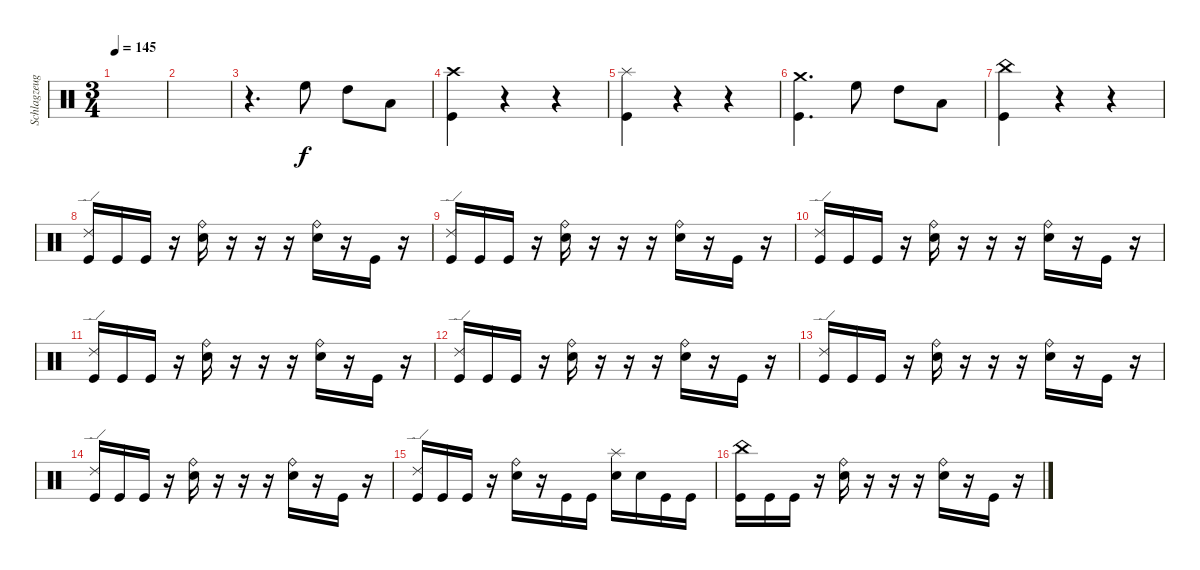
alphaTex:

\track ("Schlagzeug" "Schlagzeug") {instrument percussion}
\staff {score}
\articulation defaults
\ts (3 4)
\tempo 145
\clef neutral
\ks c
|
|
r.4{d} "High Floor Tom (hit)".8 "High Tom (hit)".8 "Low Tom (hit)".8 |
("Crash high (hit)" "Kick (hit)").4 r.4 r.4 |
("Splash (hit)" "Kick (hit)").4 r.4 r.4 |
("Crash medium (hit)" "Kick (hit)").4{d} "High Floor Tom (hit)".8 "High Tom (hit)".8 "Low Tom (hit)".8 |
("China (hit)" "Kick (hit)").4 r.4 r.4 |
("Ride (edge) 2" "Kick (hit)").16 "Kick (hit)".16 "Kick (hit)".16 r.16 ("Ride (bell)" "Snare (hit) 2").16 r.16 r.16 r.16 ("Ride (bell)" "Snare (hit) 2").16 r.16 "Kick (hit)".16 r.16 |
("Ride (edge) 2" "Kick (hit)").16 "Kick (hit)".16 "Kick (hit)".16 r.16 ("Ride (bell)" "Snare (hit) 2").16 r.16 r.16 r.16 ("Ride (bell)" "Snare (hit) 2").16 r.16 "Kick (hit)".16 r.16 |
("Ride (edge) 2" "Kick (hit)").16 "Kick (hit)".16 "Kick (hit)".16 r.16 ("Ride (bell)" "Snare (hit) 2").16 r.16 r.16 r.16 ("Ride (bell)" "Snare (hit) 2").16 r.16 "Kick (hit)".16 r.16 |
("Ride (edge) 2" "Kick (hit)").16 "Kick (hit)".16 "Kick (hit)".16 r.16 ("Ride (bell)" "Snare (hit) 2").16 r.16 r.16 r.16 ("Ride (bell)" "Snare (hit) 2").16 r.16 "Kick (hit)".16 r.16 |
("Ride (edge) 2" "Kick (hit)").16 "Kick (hit)".16 "Kick (hit)".16 r.16 ("Ride (bell)" "Snare (hit) 2").16 r.16 r.16 r.16 ("Ride (bell)" "Snare (hit) 2").16 r.16 "Kick (hit)".16 r.16 |
("Ride (edge) 2" "Kick (hit)").16 "Kick (hit)".16 "Kick (hit)".16 r.16 ("Ride (bell)" "Snare (hit) 2").16 r.16 r.16 r.16 ("Ride (bell)" "Snare (hit) 2").16 r.16 "Kick (hit)".16 r.16 |
("Ride (edge) 2" "Kick (hit)").16 "Kick (hit)".16 "Kick (hit)".16 r.16 ("Ride (bell)" "Snare (hit) 2").16 r.16 r.16 r.16 ("Ride (bell)" "Snare (hit) 2").16 r.16 "Kick (hit)".16 r.16 |
("Ride (edge) 2" "Kick (hit)").16 "Kick (hit)".16 "Kick (hit)".16 r.16 ("Ride (bell)" "Snare (hit) 2").16 r.16 "Kick (hit)".16 "Kick (hit)".16 ("Splash (hit)" "Snare (hit) 2").16 "Snare (hit) 2".16 "Kick (hit)".16 "Kick (hit)".16 |
("China (hit)" "Kick (hit)").16 "Kick (hit)".16 "Kick (hit)".16 r.16 ("Ride (bell)" "Snare (hit) 2").16 r.16 r.16 r.16 ("Ride (bell)" "Snare (hit) 2").16 r.16 "Kick (hit)".16 r.16
